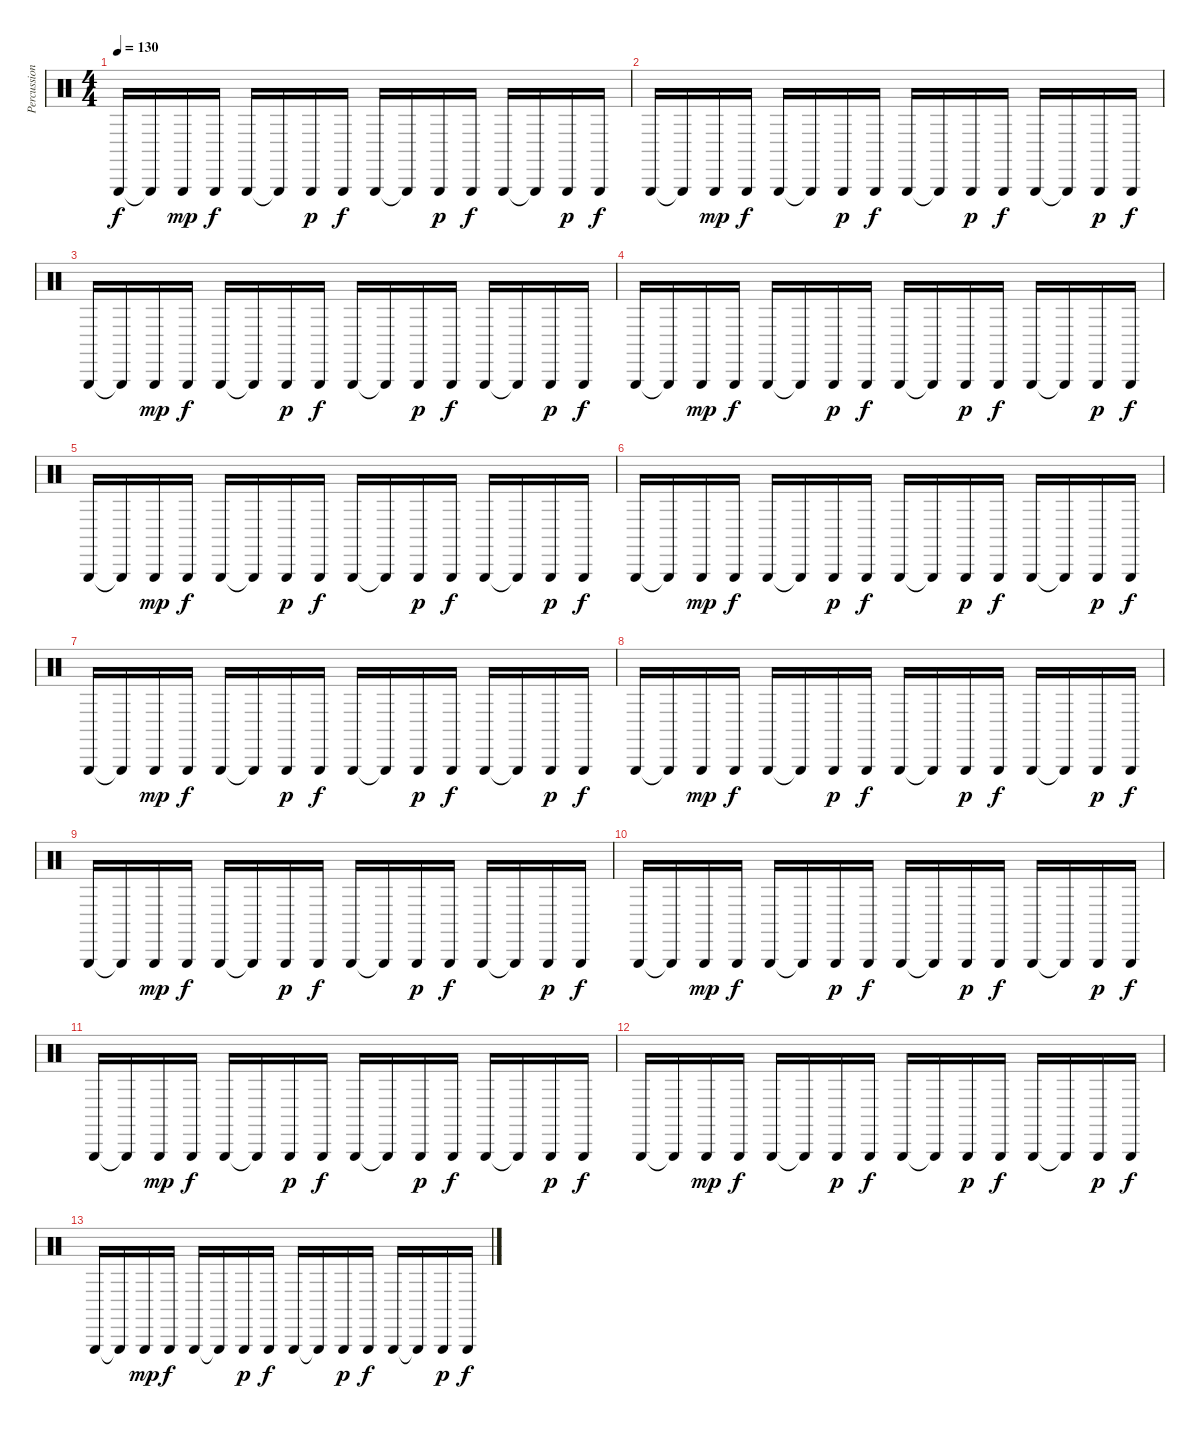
\track ("Percussion" "Percussion") {instrument percussion}
\staff {score}
\articulation defaults
\ts (4 4)
\tempo 130
\clef neutral
\ks c "Triangle (hit)".16{dy f} "Triangle (hit)"{t}.16 "Triangle (hit)".16{dy mp} "Triangle (hit)".16{dy f} "Triangle (hit)".16 "Triangle (hit)"{t}.16 "Triangle (hit)".16{dy p} "Triangle (hit)".16{dy f} "Triangle (hit)".16 "Triangle (hit)"{t}.16 "Triangle (hit)".16{dy p} "Triangle (hit)".16{dy f} "Triangle (hit)".16 "Triangle (hit)"{t}.16 "Triangle (hit)".16{dy p} "Triangle (hit)".16{dy f}
|
"Triangle (hit)".16 "Triangle (hit)"{t}.16 "Triangle (hit)".16{dy mp} "Triangle (hit)".16{dy f} "Triangle (hit)".16 "Triangle (hit)"{t}.16 "Triangle (hit)".16{dy p} "Triangle (hit)".16{dy f} "Triangle (hit)".16 "Triangle (hit)"{t}.16 "Triangle (hit)".16{dy p} "Triangle (hit)".16{dy f} "Triangle (hit)".16 "Triangle (hit)"{t}.16 "Triangle (hit)".16{dy p} "Triangle (hit)".16{dy f} |
"Triangle (hit)".16 "Triangle (hit)"{t}.16 "Triangle (hit)".16{dy mp} "Triangle (hit)".16{dy f} "Triangle (hit)".16 "Triangle (hit)"{t}.16 "Triangle (hit)".16{dy p} "Triangle (hit)".16{dy f} "Triangle (hit)".16 "Triangle (hit)"{t}.16 "Triangle (hit)".16{dy p} "Triangle (hit)".16{dy f} "Triangle (hit)".16 "Triangle (hit)"{t}.16 "Triangle (hit)".16{dy p} "Triangle (hit)".16{dy f} |
"Triangle (hit)".16 "Triangle (hit)"{t}.16 "Triangle (hit)".16{dy mp} "Triangle (hit)".16{dy f} "Triangle (hit)".16 "Triangle (hit)"{t}.16 "Triangle (hit)".16{dy p} "Triangle (hit)".16{dy f} "Triangle (hit)".16 "Triangle (hit)"{t}.16 "Triangle (hit)".16{dy p} "Triangle (hit)".16{dy f} "Triangle (hit)".16 "Triangle (hit)"{t}.16 "Triangle (hit)".16{dy p} "Triangle (hit)".16{dy f} |
"Triangle (hit)".16 "Triangle (hit)"{t}.16 "Triangle (hit)".16{dy mp} "Triangle (hit)".16{dy f} "Triangle (hit)".16 "Triangle (hit)"{t}.16 "Triangle (hit)".16{dy p} "Triangle (hit)".16{dy f} "Triangle (hit)".16 "Triangle (hit)"{t}.16 "Triangle (hit)".16{dy p} "Triangle (hit)".16{dy f} "Triangle (hit)".16 "Triangle (hit)"{t}.16 "Triangle (hit)".16{dy p} "Triangle (hit)".16{dy f} |
"Triangle (hit)".16 "Triangle (hit)"{t}.16 "Triangle (hit)".16{dy mp} "Triangle (hit)".16{dy f} "Triangle (hit)".16 "Triangle (hit)"{t}.16 "Triangle (hit)".16{dy p} "Triangle (hit)".16{dy f} "Triangle (hit)".16 "Triangle (hit)"{t}.16 "Triangle (hit)".16{dy p} "Triangle (hit)".16{dy f} "Triangle (hit)".16 "Triangle (hit)"{t}.16 "Triangle (hit)".16{dy p} "Triangle (hit)".16{dy f} |
"Triangle (hit)".16 "Triangle (hit)"{t}.16 "Triangle (hit)".16{dy mp} "Triangle (hit)".16{dy f} "Triangle (hit)".16 "Triangle (hit)"{t}.16 "Triangle (hit)".16{dy p} "Triangle (hit)".16{dy f} "Triangle (hit)".16 "Triangle (hit)"{t}.16 "Triangle (hit)".16{dy p} "Triangle (hit)".16{dy f} "Triangle (hit)".16 "Triangle (hit)"{t}.16 "Triangle (hit)".16{dy p} "Triangle (hit)".16{dy f} |
"Triangle (hit)".16 "Triangle (hit)"{t}.16 "Triangle (hit)".16{dy mp} "Triangle (hit)".16{dy f} "Triangle (hit)".16 "Triangle (hit)"{t}.16 "Triangle (hit)".16{dy p} "Triangle (hit)".16{dy f} "Triangle (hit)".16 "Triangle (hit)"{t}.16 "Triangle (hit)".16{dy p} "Triangle (hit)".16{dy f} "Triangle (hit)".16 "Triangle (hit)"{t}.16 "Triangle (hit)".16{dy p} "Triangle (hit)".16{dy f} |
"Triangle (hit)".16 "Triangle (hit)"{t}.16 "Triangle (hit)".16{dy mp} "Triangle (hit)".16{dy f} "Triangle (hit)".16 "Triangle (hit)"{t}.16 "Triangle (hit)".16{dy p} "Triangle (hit)".16{dy f} "Triangle (hit)".16 "Triangle (hit)"{t}.16 "Triangle (hit)".16{dy p} "Triangle (hit)".16{dy f} "Triangle (hit)".16 "Triangle (hit)"{t}.16 "Triangle (hit)".16{dy p} "Triangle (hit)".16{dy f} |
"Triangle (hit)".16 "Triangle (hit)"{t}.16 "Triangle (hit)".16{dy mp} "Triangle (hit)".16{dy f} "Triangle (hit)".16 "Triangle (hit)"{t}.16 "Triangle (hit)".16{dy p} "Triangle (hit)".16{dy f} "Triangle (hit)".16 "Triangle (hit)"{t}.16 "Triangle (hit)".16{dy p} "Triangle (hit)".16{dy f} "Triangle (hit)".16 "Triangle (hit)"{t}.16 "Triangle (hit)".16{dy p} "Triangle (hit)".16{dy f} |
"Triangle (hit)".16 "Triangle (hit)"{t}.16 "Triangle (hit)".16{dy mp} "Triangle (hit)".16{dy f} "Triangle (hit)".16 "Triangle (hit)"{t}.16 "Triangle (hit)".16{dy p} "Triangle (hit)".16{dy f} "Triangle (hit)".16 "Triangle (hit)"{t}.16 "Triangle (hit)".16{dy p} "Triangle (hit)".16{dy f} "Triangle (hit)".16 "Triangle (hit)"{t}.16 "Triangle (hit)".16{dy p} "Triangle (hit)".16{dy f} |
"Triangle (hit)".16 "Triangle (hit)"{t}.16 "Triangle (hit)".16{dy mp} "Triangle (hit)".16{dy f} "Triangle (hit)".16 "Triangle (hit)"{t}.16 "Triangle (hit)".16{dy p} "Triangle (hit)".16{dy f} "Triangle (hit)".16 "Triangle (hit)"{t}.16 "Triangle (hit)".16{dy p} "Triangle (hit)".16{dy f} "Triangle (hit)".16 "Triangle (hit)"{t}.16 "Triangle (hit)".16{dy p} "Triangle (hit)".16{dy f} |
"Triangle (hit)".16 "Triangle (hit)"{t}.16 "Triangle (hit)".16{dy mp} "Triangle (hit)".16{dy f} "Triangle (hit)".16 "Triangle (hit)"{t}.16 "Triangle (hit)".16{dy p} "Triangle (hit)".16{dy f} "Triangle (hit)".16 "Triangle (hit)"{t}.16 "Triangle (hit)".16{dy p} "Triangle (hit)".16{dy f} "Triangle (hit)".16 "Triangle (hit)"{t}.16 "Triangle (hit)".16{dy p} "Triangle (hit)".16{dy f}
